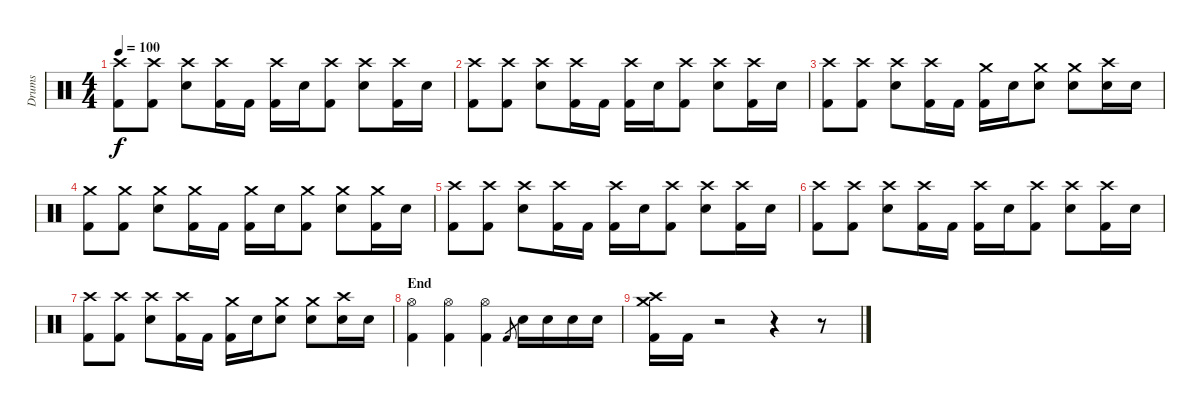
\track ("Drums" "Drums") {instrument percussion}
\staff {score}
\articulation defaults
\ts (4 4)
\tempo 100
\clef neutral
\ks c
("Crash high (hit)" "Kick (hit) 2").8{dy f} ("Crash high (hit)" "Kick (hit) 2").8 ("Crash high (hit)" "Snare (hit) 2").8 ("Crash high (hit)" "Kick (hit) 2").16 "Kick (hit) 2".16 ("Crash high (hit)" "Kick (hit) 2").16 "Snare (hit) 2".16 ("Crash high (hit)" "Kick (hit) 2").8 ("Crash high (hit)" "Snare (hit) 2").8 ("Crash high (hit)" "Kick (hit) 2").16 "Snare (hit) 2".16 |
("Crash high (hit)" "Kick (hit) 2").8 ("Crash high (hit)" "Kick (hit) 2").8 ("Crash high (hit)" "Snare (hit) 2").8 ("Crash high (hit)" "Kick (hit) 2").16 "Kick (hit) 2".16 ("Crash high (hit)" "Kick (hit) 2").16 "Snare (hit) 2".16 ("Crash high (hit)" "Kick (hit) 2").8 ("Crash high (hit)" "Snare (hit) 2").8 ("Crash high (hit)" "Kick (hit) 2").16 "Snare (hit) 2".16 |
("Crash high (hit)" "Kick (hit) 2").8 ("Crash high (hit)" "Kick (hit) 2").8 ("Crash high (hit)" "Snare (hit) 2").8 ("Crash high (hit)" "Kick (hit) 2").16 "Kick (hit) 2".16 ("Crash medium (hit)" "Kick (hit) 2").16 "Snare (hit) 2".16 ("Crash medium (hit)" "Snare (hit) 2").8 ("Crash medium (hit)" "Snare (hit) 2").8 ("Crash high (hit)" "Snare (hit) 2").16 "Snare (hit) 2".16 |
("Crash medium (hit)" "Kick (hit) 2").8 ("Crash medium (hit)" "Kick (hit) 2").8 ("Crash medium (hit)" "Snare (hit) 2").8 ("Crash medium (hit)" "Kick (hit) 2").16 "Kick (hit) 2".16 ("Crash medium (hit)" "Kick (hit) 2").16 "Snare (hit) 2".16 ("Crash medium (hit)" "Kick (hit) 2").8 ("Crash medium (hit)" "Snare (hit) 2").8 ("Crash medium (hit)" "Kick (hit) 2").16 "Snare (hit) 2".16 |
("Crash high (hit)" "Kick (hit) 2").8 ("Crash high (hit)" "Kick (hit) 2").8 ("Crash high (hit)" "Snare (hit) 2").8 ("Crash high (hit)" "Kick (hit) 2").16 "Kick (hit) 2".16 ("Crash high (hit)" "Kick (hit) 2").16 "Snare (hit) 2".16 ("Crash high (hit)" "Kick (hit) 2").8 ("Crash high (hit)" "Snare (hit) 2").8 ("Crash high (hit)" "Kick (hit) 2").16 "Snare (hit) 2".16 |
("Crash high (hit)" "Kick (hit) 2").8 ("Crash high (hit)" "Kick (hit) 2").8 ("Crash high (hit)" "Snare (hit) 2").8 ("Crash high (hit)" "Kick (hit) 2").16 "Kick (hit) 2".16 ("Crash high (hit)" "Kick (hit) 2").16 "Snare (hit) 2".16 ("Crash high (hit)" "Kick (hit) 2").8 ("Crash high (hit)" "Snare (hit) 2").8 ("Crash high (hit)" "Kick (hit) 2").16 "Snare (hit) 2".16 |
("Crash high (hit)" "Kick (hit) 2").8 ("Crash high (hit)" "Kick (hit) 2").8 ("Crash high (hit)" "Snare (hit) 2").8 ("Crash high (hit)" "Kick (hit) 2").16 "Kick (hit) 2".16 ("Crash medium (hit)" "Kick (hit) 2").16 "Snare (hit) 2".16 ("Crash medium (hit)" "Snare (hit) 2").8 ("Crash medium (hit)" "Snare (hit) 2").8 ("Crash high (hit)" "Snare (hit) 2").16 "Snare (hit) 2".16 |
\section ("" "End")
("Hi-Hat (open)" "Kick (hit) 2").4 ("Hi-Hat (open)" "Kick (hit) 2").4 ("Hi-Hat (open)" "Kick (hit) 2").4 "Kick (hit) 2".8{gr} "Snare (hit) 2".16 "Snare (hit) 2".16 "Snare (hit) 2".16 "Snare (hit) 2".16 |
("Crash high (hit)" "Crash medium (hit)" "Kick (hit) 2").16 "Kick (hit) 2".16 r.2 r.4 r.8
